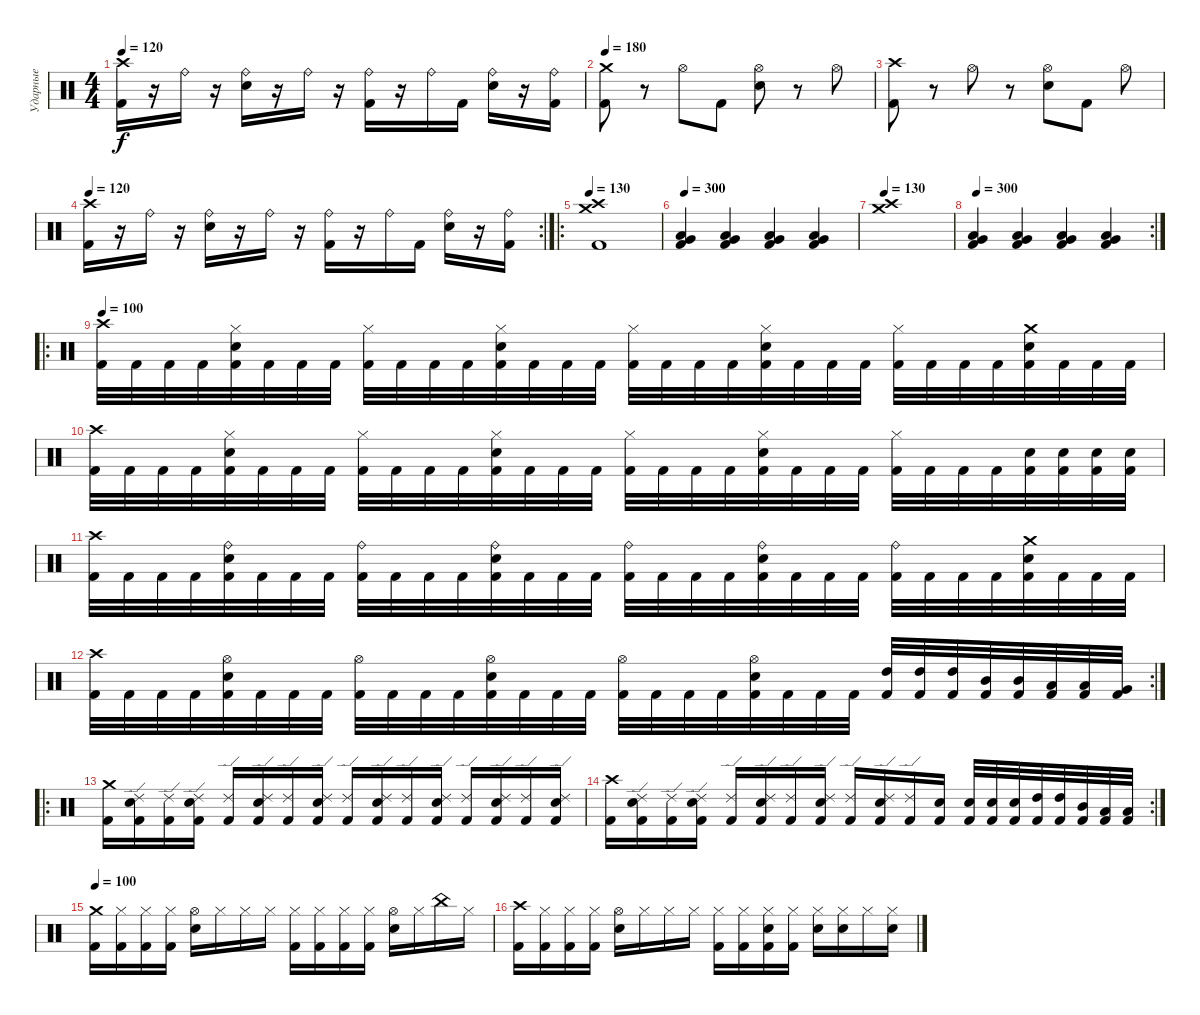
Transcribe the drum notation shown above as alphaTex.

\track ("Ударные" "Ударные") {instrument percussion}
\staff {score}
\articulation defaults
\ts (4 4)
\tempo 120
\clef neutral
\ks c
("Crash high (hit)" "Kick (hit) 2").16{dy f} r.16 "Ride (bell)".16 r.16 ("Ride (bell)" "Snare (hit) 2").16 r.16 "Ride (bell)".16 r.16 ("Ride (bell)" "Kick (hit) 2").16 r.16 "Ride (bell)".16 "Kick (hit) 2".16 ("Ride (bell)" "Snare (hit) 2").16 r.16 ("Ride (bell)" "Kick (hit) 2").16 |
\tempo 180
("Crash medium (hit)" "Kick (hit) 2").8 r.8 "Hi-Hat (open)".8 "Kick (hit) 2".8 ("Hi-Hat (open)" "Electric Snare (hit)").8 r.8 "Hi-Hat (open)".8 |
("Crash high (hit)" "Kick (hit) 2").8 r.8 "Hi-Hat (open)".8 r.8 ("Hi-Hat (open)" "Electric Snare (hit)").8 "Kick (hit) 2".8 "Hi-Hat (open)".8 |
\rc 2
\tempo 120
("Crash high (hit)" "Kick (hit) 2").16 r.16 "Ride (bell)".16 r.16 ("Ride (bell)" "Snare (hit) 2").16 r.16 "Ride (bell)".16 r.16 ("Ride (bell)" "Kick (hit) 2").16 r.16 "Ride (bell)".16 "Kick (hit) 2".16 ("Ride (bell)" "Snare (hit) 2").16 r.16 ("Ride (bell)" "Kick (hit) 2").16 |
\ro
\tempo 130
("Crash medium (hit)" "Crash high (hit)" "Kick (hit) 2").1 |
\tempo 300
("Low Tom (hit)" "Very Low Tom (hit)" "Kick (hit) 2").4 ("Low Tom (hit)" "Very Low Tom (hit)" "Kick (hit) 2").4 ("Low Tom (hit)" "Very Low Tom (hit)" "Kick (hit) 2").4 ("Low Tom (hit)" "Very Low Tom (hit)" "Kick (hit) 2").4 |
\tempo 130
("Crash medium (hit)" "Crash high (hit)").1 |
\rc 2
\tempo 300
("Low Tom (hit)" "Very Low Tom (hit)" "Kick (hit) 2").4 ("Low Tom (hit)" "Very Low Tom (hit)" "Kick (hit) 2").4 ("Low Tom (hit)" "Very Low Tom (hit)" "Kick (hit) 2").4 ("Low Tom (hit)" "Very Low Tom (hit)" "Kick (hit) 2").4 |
\ro
\tempo 100
("Crash high (hit)" "Kick (hit) 2").32 "Kick (hit) 2".32 "Kick (hit) 2".32 "Kick (hit) 2".32 ("Hi-Hat (closed)" "Snare (hit) 2" "Kick (hit) 2").32 "Kick (hit) 2".32 "Kick (hit) 2".32 "Kick (hit) 2".32 ("Hi-Hat (closed)" "Kick (hit) 2").32 "Kick (hit) 2".32 "Kick (hit) 2".32 "Kick (hit) 2".32 ("Hi-Hat (closed)" "Snare (hit) 2" "Kick (hit) 2").32 "Kick (hit) 2".32 "Kick (hit) 2".32 "Kick (hit) 2".32 ("Hi-Hat (closed)" "Kick (hit) 2").32 "Kick (hit) 2".32 "Kick (hit) 2".32 "Kick (hit) 2".32 ("Hi-Hat (closed)" "Snare (hit) 2" "Kick (hit) 2").32 "Kick (hit) 2".32 "Kick (hit) 2".32 "Kick (hit) 2".32 ("Hi-Hat (closed)" "Kick (hit) 2").32 "Kick (hit) 2".32 "Kick (hit) 2".32 "Kick (hit) 2".32 ("Crash medium (hit)" "Snare (hit) 2" "Kick (hit) 2").32 "Kick (hit) 2".32 "Kick (hit) 2".32 "Kick (hit) 2".32 |
("Crash high (hit)" "Kick (hit) 2").32 "Kick (hit) 2".32 "Kick (hit) 2".32 "Kick (hit) 2".32 ("Hi-Hat (closed)" "Snare (hit) 2" "Kick (hit) 2").32 "Kick (hit) 2".32 "Kick (hit) 2".32 "Kick (hit) 2".32 ("Hi-Hat (closed)" "Kick (hit) 2").32 "Kick (hit) 2".32 "Kick (hit) 2".32 "Kick (hit) 2".32 ("Hi-Hat (closed)" "Snare (hit) 2" "Kick (hit) 2").32 "Kick (hit) 2".32 "Kick (hit) 2".32 "Kick (hit) 2".32 ("Hi-Hat (closed)" "Kick (hit) 2").32 "Kick (hit) 2".32 "Kick (hit) 2".32 "Kick (hit) 2".32 ("Hi-Hat (closed)" "Snare (hit) 2" "Kick (hit) 2").32 "Kick (hit) 2".32 "Kick (hit) 2".32 "Kick (hit) 2".32 ("Hi-Hat (closed)" "Kick (hit) 2").32 "Kick (hit) 2".32 "Kick (hit) 2".32 "Kick (hit) 2".32 ("Snare (hit) 2" "Kick (hit) 2").32 ("Snare (hit) 2" "Kick (hit) 2").32 ("Snare (hit) 2" "Kick (hit) 2").32 ("Snare (hit) 2" "Kick (hit) 2").32 |
("Crash high (hit)" "Kick (hit) 2").32 "Kick (hit) 2".32 "Kick (hit) 2".32 "Kick (hit) 2".32 ("Ride (bell)" "Snare (hit) 2" "Kick (hit) 2").32 "Kick (hit) 2".32 "Kick (hit) 2".32 "Kick (hit) 2".32 ("Ride (bell)" "Kick (hit) 2").32 "Kick (hit) 2".32 "Kick (hit) 2".32 "Kick (hit) 2".32 ("Ride (bell)" "Snare (hit) 2" "Kick (hit) 2").32 "Kick (hit) 2".32 "Kick (hit) 2".32 "Kick (hit) 2".32 ("Ride (bell)" "Kick (hit) 2").32 "Kick (hit) 2".32 "Kick (hit) 2".32 "Kick (hit) 2".32 ("Ride (bell)" "Snare (hit) 2" "Kick (hit) 2").32 "Kick (hit) 2".32 "Kick (hit) 2".32 "Kick (hit) 2".32 ("Ride (bell)" "Kick (hit) 2").32 "Kick (hit) 2".32 "Kick (hit) 2".32 "Kick (hit) 2".32 ("Crash medium (hit)" "Snare (hit) 2" "Kick (hit) 2").32 "Kick (hit) 2".32 "Kick (hit) 2".32 "Kick (hit) 2".32 |
\rc 2
("Crash high (hit)" "Kick (hit) 2").32 "Kick (hit) 2".32 "Kick (hit) 2".32 "Kick (hit) 2".32 ("Hi-Hat (open)" "Snare (hit) 2" "Kick (hit) 2").32 "Kick (hit) 2".32 "Kick (hit) 2".32 "Kick (hit) 2".32 ("Hi-Hat (open)" "Kick (hit) 2").32 "Kick (hit) 2".32 "Kick (hit) 2".32 "Kick (hit) 2".32 ("Hi-Hat (open)" "Snare (hit) 2" "Kick (hit) 2").32 "Kick (hit) 2".32 "Kick (hit) 2".32 "Kick (hit) 2".32 ("Hi-Hat (open)" "Kick (hit) 2").32 "Kick (hit) 2".32 "Kick (hit) 2".32 "Kick (hit) 2".32 ("Hi-Hat (open)" "Snare (hit) 2" "Kick (hit) 2").32 "Kick (hit) 2".32 "Kick (hit) 2".32 "Kick (hit) 2".32 ("High Tom (hit)" "Kick (hit) 2").32 ("High Tom (hit)" "Kick (hit) 2").32 ("High Tom (hit)" "Kick (hit) 2").32 ("Mid Tom (hit)" "Kick (hit) 2").32 ("Mid Tom (hit)" "Kick (hit) 2").32 ("Low Tom (hit)" "Kick (hit) 2").32 ("Low Tom (hit)" "Kick (hit) 2").32 ("Very Low Tom (hit)" "Kick (hit) 2").32 |
\ro
("Crash medium (hit)" "Kick (hit) 2").16 ("Ride (edge) 2" "Snare (hit) 2" "Kick (hit) 2").16 ("Ride (edge) 2" "Kick (hit) 2").16 ("Ride (edge) 2" "Snare (hit) 2" "Kick (hit) 2").16 ("Ride (edge) 2" "Kick (hit) 2").16 ("Ride (edge) 2" "Snare (hit) 2" "Kick (hit) 2").16 ("Ride (edge) 2" "Kick (hit) 2").16 ("Ride (edge) 2" "Snare (hit) 2" "Kick (hit) 2").16 ("Ride (edge) 2" "Kick (hit) 2").16 ("Ride (edge) 2" "Snare (hit) 2" "Kick (hit) 2").16 ("Ride (edge) 2" "Kick (hit) 2").16 ("Ride (edge) 2" "Snare (hit) 2" "Kick (hit) 2").16 ("Ride (edge) 2" "Kick (hit) 2").16 ("Ride (edge) 2" "Snare (hit) 2" "Kick (hit) 2").16 ("Ride (edge) 2" "Kick (hit) 2").16 ("Ride (edge) 2" "Snare (hit) 2" "Kick (hit) 2").16 |
\rc 2
("Crash high (hit)" "Kick (hit) 2").16 ("Ride (edge) 2" "Snare (hit) 2" "Kick (hit) 2").16 ("Ride (edge) 2" "Kick (hit) 2").16 ("Ride (edge) 2" "Snare (hit) 2" "Kick (hit) 2").16 ("Ride (edge) 2" "Kick (hit) 2").16 ("Ride (edge) 2" "Snare (hit) 2" "Kick (hit) 2").16 ("Ride (edge) 2" "Kick (hit) 2").16 ("Ride (edge) 2" "Snare (hit) 2" "Kick (hit) 2").16 ("Ride (edge) 2" "Kick (hit) 2").16 ("Ride (edge) 2" "Snare (hit) 2" "Kick (hit) 2").16 ("Ride (edge) 2" "Kick (hit) 2").16 ("Snare (hit) 2" "Kick (hit) 2").16 ("Snare (hit) 2" "Kick (hit) 2").32 ("Snare (hit) 2" "Kick (hit) 2").32 ("Snare (hit) 2" "Kick (hit) 2").32 ("High Tom (hit)" "Kick (hit) 2").32 ("High Tom (hit)" "Kick (hit) 2").32 ("Mid Tom (hit)" "Kick (hit) 2").32 ("Low Tom (hit)" "Kick (hit) 2").32 ("Low Tom (hit)" "Kick (hit) 2").32 |
\tempo 100
("Crash medium (hit)" "Kick (hit) 2").16 ("Hi-Hat (closed)" "Kick (hit) 2").16 ("Hi-Hat (closed)" "Kick (hit) 2").16 ("Hi-Hat (closed)" "Kick (hit) 2").16 ("Hi-Hat (open)" "Snare (hit) 2").16 "Hi-Hat (closed)".16 "Hi-Hat (closed)".16 "Hi-Hat (closed)".16 ("Hi-Hat (closed)" "Kick (hit) 2").16 ("Hi-Hat (closed)" "Kick (hit) 2").16 ("Hi-Hat (closed)" "Kick (hit) 2").16 ("Hi-Hat (closed)" "Kick (hit) 2").16 ("Hi-Hat (open)" "Snare (hit) 2").16 "Hi-Hat (closed)".16 "China (hit)".16 "Hi-Hat (closed)".16 |
("Crash high (hit)" "Kick (hit) 2").16 ("Hi-Hat (closed)" "Kick (hit) 2").16 ("Hi-Hat (closed)" "Kick (hit) 2").16 ("Hi-Hat (closed)" "Kick (hit) 2").16 ("Hi-Hat (open)" "Snare (hit) 2").16 "Hi-Hat (closed)".16 "Hi-Hat (closed)".16 "Hi-Hat (closed)".16 ("Hi-Hat (closed)" "Kick (hit) 2").16 ("Hi-Hat (closed)" "Kick (hit) 2").16 ("Hi-Hat (closed)" "Snare (hit) 2" "Kick (hit) 2").16 ("Hi-Hat (closed)" "Kick (hit) 2").16 ("Hi-Hat (closed)" "Snare (hit) 2").16 ("Hi-Hat (closed)" "Snare (hit) 2").16 "Hi-Hat (closed)".16 ("Hi-Hat (closed)" "Snare (hit) 2").16
